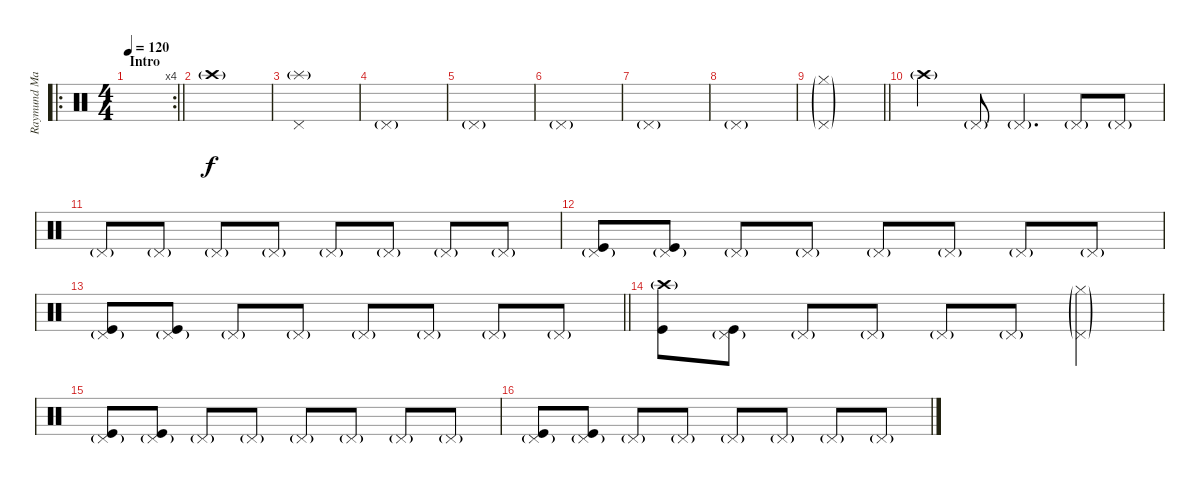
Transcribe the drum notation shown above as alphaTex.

\track ("Raymund Marasigan(Drums)" "Raymund Ma") {instrument percussion}
\staff {score}
\articulation defaults
\ro
\rc 4
\ts (4 4)
\section ("" "Intro")
\tempo 120
\clef neutral
\barLineRight lightlight
\ks c
|
"Crash high (hit)"{g}.1 |
("Splash (hit)"{g} "Pedal Hi-Hat (hit)").1 |
"Pedal Hi-Hat (hit)"{g}.1 |
"Pedal Hi-Hat (hit)"{g}.1 |
"Pedal Hi-Hat (hit)"{g}.1 |
"Pedal Hi-Hat (hit)"{g}.1 |
"Pedal Hi-Hat (hit)"{g}.1 |
\barLineRight lightlight
("Pedal Hi-Hat (hit)"{g} "Hi-Hat (closed)"{g}).1 |
\section ("" "")
"Crash high (hit)"{g}.4 "Pedal Hi-Hat (hit)"{g}.8 "Pedal Hi-Hat (hit)"{g}.4{d} "Pedal Hi-Hat (hit)"{g}.8 "Pedal Hi-Hat (hit)"{g}.8 |
"Pedal Hi-Hat (hit)"{g}.8 "Pedal Hi-Hat (hit)"{g}.8 "Pedal Hi-Hat (hit)"{g}.8 "Pedal Hi-Hat (hit)"{g}.8 "Pedal Hi-Hat (hit)"{g}.8 "Pedal Hi-Hat (hit)"{g}.8 "Pedal Hi-Hat (hit)"{g}.8 "Pedal Hi-Hat (hit)"{g}.8 |
("Pedal Hi-Hat (hit)"{g} "Kick (hit)").8 ("Pedal Hi-Hat (hit)"{g} "Kick (hit)").8 "Pedal Hi-Hat (hit)"{g}.8 "Pedal Hi-Hat (hit)"{g}.8 "Pedal Hi-Hat (hit)"{g}.8 "Pedal Hi-Hat (hit)"{g}.8 "Pedal Hi-Hat (hit)"{g}.8 "Pedal Hi-Hat (hit)"{g}.8 |
\barLineRight lightlight
("Pedal Hi-Hat (hit)"{g} "Kick (hit)").8 ("Pedal Hi-Hat (hit)"{g} "Kick (hit)").8 "Pedal Hi-Hat (hit)"{g}.8 "Pedal Hi-Hat (hit)"{g}.8 "Pedal Hi-Hat (hit)"{g}.8 "Pedal Hi-Hat (hit)"{g}.8 "Pedal Hi-Hat (hit)"{g}.8 "Pedal Hi-Hat (hit)"{g}.8 |
\section ("" "")
("Crash high (hit)"{g} "Kick (hit)").8 ("Pedal Hi-Hat (hit)"{g} "Kick (hit)").8 "Pedal Hi-Hat (hit)"{g}.8 "Pedal Hi-Hat (hit)"{g}.8 "Pedal Hi-Hat (hit)"{g}.8 "Pedal Hi-Hat (hit)"{g}.8 ("Pedal Hi-Hat (hit)"{g} "Hi-Hat (closed)"{g}).4 |
("Pedal Hi-Hat (hit)"{g} "Kick (hit)").8 ("Pedal Hi-Hat (hit)"{g} "Kick (hit)").8 "Pedal Hi-Hat (hit)"{g}.8 "Pedal Hi-Hat (hit)"{g}.8 "Pedal Hi-Hat (hit)"{g}.8 "Pedal Hi-Hat (hit)"{g}.8 "Pedal Hi-Hat (hit)"{g}.8 "Pedal Hi-Hat (hit)"{g}.8 |
("Pedal Hi-Hat (hit)"{g} "Kick (hit)").8 ("Pedal Hi-Hat (hit)"{g} "Kick (hit)").8 "Pedal Hi-Hat (hit)"{g}.8 "Pedal Hi-Hat (hit)"{g}.8 "Pedal Hi-Hat (hit)"{g}.8 "Pedal Hi-Hat (hit)"{g}.8 "Pedal Hi-Hat (hit)"{g}.8 "Pedal Hi-Hat (hit)"{g}.8
